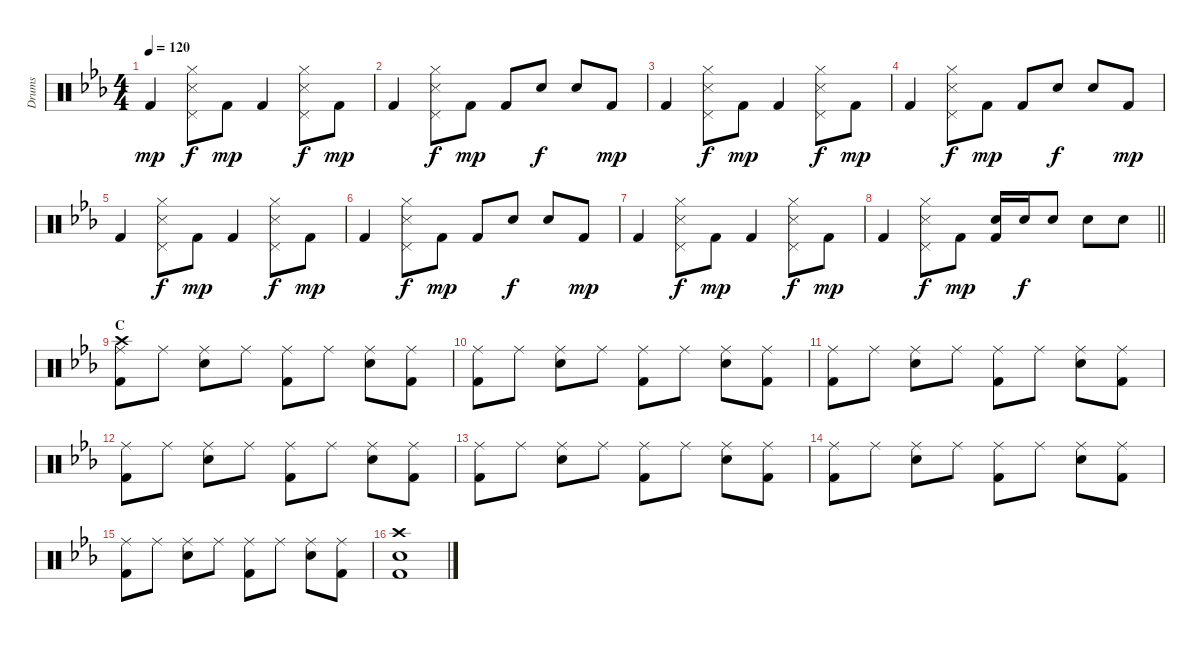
\track ("Drums" "Drums") {instrument percussion}
\staff {score}
\articulation defaults
\ts (4 4)
\tempo 120
\clef neutral
\ks eb "Kick (hit) 2".4{dy mp}
("Hi-Hat (closed)" "Metronome (hit)" "Pedal Hi-Hat (hit)").8{dy f} "Kick (hit) 2".8{dy mp} "Kick (hit) 2".4 ("Hi-Hat (closed)" "Metronome (hit)" "Pedal Hi-Hat (hit)").8{dy f} "Kick (hit) 2".8{dy mp} |
"Kick (hit) 2".4 ("Hi-Hat (closed)" "Metronome (hit)" "Pedal Hi-Hat (hit)").8{dy f} "Kick (hit) 2".8{dy mp} "Kick (hit) 2".8 "Electric Snare (hit)".8{dy f} "Electric Snare (hit)".8 "Kick (hit) 2".8{dy mp} |
"Kick (hit) 2".4 ("Hi-Hat (closed)" "Metronome (hit)" "Pedal Hi-Hat (hit)").8{dy f} "Kick (hit) 2".8{dy mp} "Kick (hit) 2".4 ("Hi-Hat (closed)" "Metronome (hit)" "Pedal Hi-Hat (hit)").8{dy f} "Kick (hit) 2".8{dy mp} |
"Kick (hit) 2".4 ("Hi-Hat (closed)" "Metronome (hit)" "Pedal Hi-Hat (hit)").8{dy f} "Kick (hit) 2".8{dy mp} "Kick (hit) 2".8 "Electric Snare (hit)".8{dy f} "Electric Snare (hit)".8 "Kick (hit) 2".8{dy mp} |
"Kick (hit) 2".4 ("Hi-Hat (closed)" "Metronome (hit)" "Pedal Hi-Hat (hit)").8{dy f} "Kick (hit) 2".8{dy mp} "Kick (hit) 2".4 ("Hi-Hat (closed)" "Metronome (hit)" "Pedal Hi-Hat (hit)").8{dy f} "Kick (hit) 2".8{dy mp} |
"Kick (hit) 2".4 ("Hi-Hat (closed)" "Metronome (hit)" "Pedal Hi-Hat (hit)").8{dy f} "Kick (hit) 2".8{dy mp} "Kick (hit) 2".8 "Electric Snare (hit)".8{dy f} "Electric Snare (hit)".8 "Kick (hit) 2".8{dy mp} |
"Kick (hit) 2".4 ("Hi-Hat (closed)" "Metronome (hit)" "Pedal Hi-Hat (hit)").8{dy f} "Kick (hit) 2".8{dy mp} "Kick (hit) 2".4 ("Hi-Hat (closed)" "Metronome (hit)" "Pedal Hi-Hat (hit)").8{dy f} "Kick (hit) 2".8{dy mp} |
\barLineRight lightlight "Kick (hit) 2".4
("Hi-Hat (closed)" "Metronome (hit)" "Pedal Hi-Hat (hit)").8{dy f} "Kick (hit) 2".8{dy mp} ("Electric Snare (hit)" "Kick (hit) 2").16 "Electric Snare (hit)".16{dy f} "Electric Snare (hit)".8 "Electric Snare (hit)".8 "Electric Snare (hit)".8 |
\section ("" "C")
("Crash high (hit)" "Ride (middle)" "Kick (hit) 2").8 "Ride (middle)".8 ("Ride (middle)" "Electric Snare (hit)").8 "Ride (middle)".8 ("Ride (middle)" "Kick (hit) 2").8 "Ride (middle)".8 ("Ride (middle)" "Electric Snare (hit)").8 ("Ride (middle)" "Kick (hit) 2").8 |
("Ride (middle)" "Kick (hit) 2").8 "Ride (middle)".8 ("Ride (middle)" "Electric Snare (hit)").8 "Ride (middle)".8 ("Ride (middle)" "Kick (hit) 2").8 "Ride (middle)".8 ("Ride (middle)" "Electric Snare (hit)").8 ("Ride (middle)" "Kick (hit) 2").8 |
("Ride (middle)" "Kick (hit) 2").8 "Ride (middle)".8 ("Ride (middle)" "Electric Snare (hit)").8 "Ride (middle)".8 ("Ride (middle)" "Kick (hit) 2").8 "Ride (middle)".8 ("Ride (middle)" "Electric Snare (hit)").8 ("Ride (middle)" "Kick (hit) 2").8 |
("Ride (middle)" "Kick (hit) 2").8 "Ride (middle)".8 ("Ride (middle)" "Electric Snare (hit)").8 "Ride (middle)".8 ("Ride (middle)" "Kick (hit) 2").8 "Ride (middle)".8 ("Ride (middle)" "Electric Snare (hit)").8 ("Ride (middle)" "Kick (hit) 2").8 |
("Ride (middle)" "Kick (hit) 2").8 "Ride (middle)".8 ("Ride (middle)" "Electric Snare (hit)").8 "Ride (middle)".8 ("Ride (middle)" "Kick (hit) 2").8 "Ride (middle)".8 ("Ride (middle)" "Electric Snare (hit)").8 ("Ride (middle)" "Kick (hit) 2").8 |
("Ride (middle)" "Kick (hit) 2").8 "Ride (middle)".8 ("Ride (middle)" "Electric Snare (hit)").8 "Ride (middle)".8 ("Ride (middle)" "Kick (hit) 2").8 "Ride (middle)".8 ("Ride (middle)" "Electric Snare (hit)").8 ("Ride (middle)" "Kick (hit) 2").8 |
("Ride (middle)" "Kick (hit) 2").8 "Ride (middle)".8 ("Ride (middle)" "Electric Snare (hit)").8 "Ride (middle)".8 ("Ride (middle)" "Kick (hit) 2").8 "Ride (middle)".8 ("Ride (middle)" "Electric Snare (hit)").8 ("Ride (middle)" "Kick (hit) 2").8 |
("Crash high (hit)" "Electric Snare (hit)" "Kick (hit) 2").1
